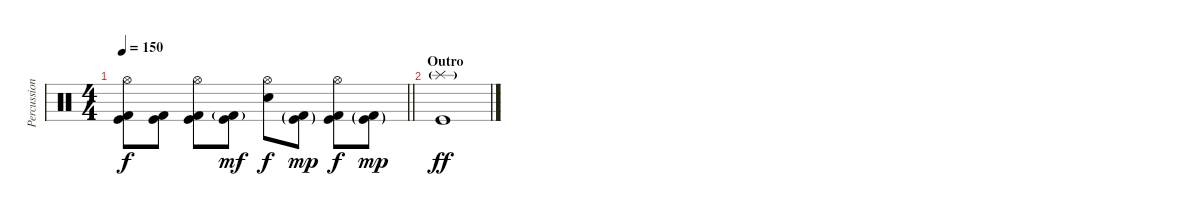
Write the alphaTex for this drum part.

\track ("Percussion" "Percussion") {instrument percussion}
\staff {score}
\articulation defaults
\ts (4 4)
\tempo 150
\clef neutral
\barLineRight lightlight
\ks c
("Hi-Hat (open)" "Kick (hit) 2" "Kick (hit)").8{dy f} ("Kick (hit) 2" "Kick (hit)").8 ("Hi-Hat (open)" "Kick (hit) 2" "Kick (hit)").8 ("Kick (hit) 2"{g} "Kick (hit)").8{dy mf} ("Hi-Hat (open)" "Electric Snare (hit)").8{dy f} ("Kick (hit) 2"{g} "Kick (hit)"{g}).8{dy mp} ("Hi-Hat (open)" "Kick (hit) 2" "Kick (hit)").8{dy f} ("Kick (hit) 2"{g} "Kick (hit)"{g}).8{dy mp} |
\section ("" "Outro")
("Splash (hit)"{g} "Kick (hit)").1{dy ff}
